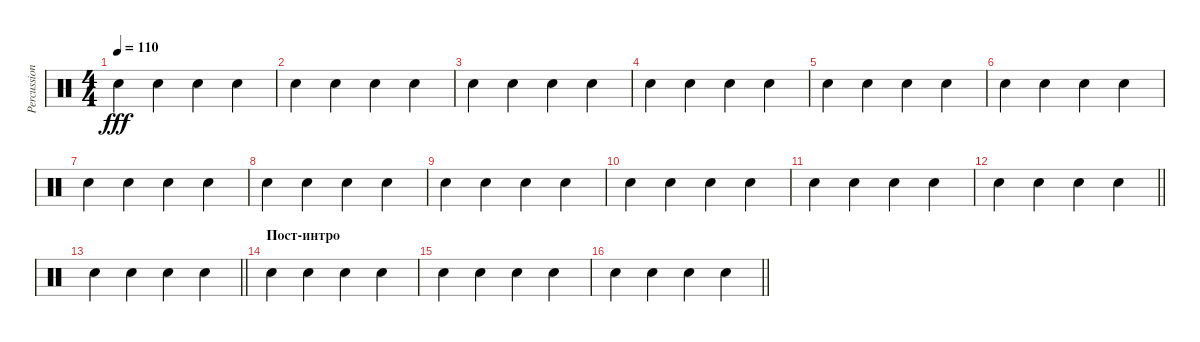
\track ("Percussion" "Percussion") {mute instrument percussion}
\staff {score}
\articulation defaults
\ts (4 4)
\tempo 110
\clef neutral
\ks c "Snare (hit) 2".4{dy fff} "Snare (hit) 2".4 "Snare (hit) 2".4 "Snare (hit) 2".4
|
"Snare (hit) 2".4 "Snare (hit) 2".4 "Snare (hit) 2".4 "Snare (hit) 2".4 |
"Snare (hit) 2".4 "Snare (hit) 2".4 "Snare (hit) 2".4 "Snare (hit) 2".4 |
"Snare (hit) 2".4 "Snare (hit) 2".4 "Snare (hit) 2".4 "Snare (hit) 2".4 |
"Snare (hit) 2".4 "Snare (hit) 2".4 "Snare (hit) 2".4 "Snare (hit) 2".4 |
"Snare (hit) 2".4 "Snare (hit) 2".4 "Snare (hit) 2".4 "Snare (hit) 2".4 |
"Snare (hit) 2".4 "Snare (hit) 2".4 "Snare (hit) 2".4 "Snare (hit) 2".4 |
"Snare (hit) 2".4 "Snare (hit) 2".4 "Snare (hit) 2".4 "Snare (hit) 2".4 |
"Snare (hit) 2".4 "Snare (hit) 2".4 "Snare (hit) 2".4 "Snare (hit) 2".4 |
"Snare (hit) 2".4 "Snare (hit) 2".4 "Snare (hit) 2".4 "Snare (hit) 2".4 |
"Snare (hit) 2".4 "Snare (hit) 2".4 "Snare (hit) 2".4 "Snare (hit) 2".4 |
\barLineRight lightlight "Snare (hit) 2".4 "Snare (hit) 2".4 "Snare (hit) 2".4 "Snare (hit) 2".4
|
\barLineRight lightlight "Snare (hit) 2".4 "Snare (hit) 2".4 "Snare (hit) 2".4 "Snare (hit) 2".4
|
\section ("" "Пост-интро")
"Snare (hit) 2".4 "Snare (hit) 2".4 "Snare (hit) 2".4 "Snare (hit) 2".4 |
"Snare (hit) 2".4 "Snare (hit) 2".4 "Snare (hit) 2".4 "Snare (hit) 2".4 |
\barLineRight lightlight "Snare (hit) 2".4 "Snare (hit) 2".4 "Snare (hit) 2".4 "Snare (hit) 2".4
